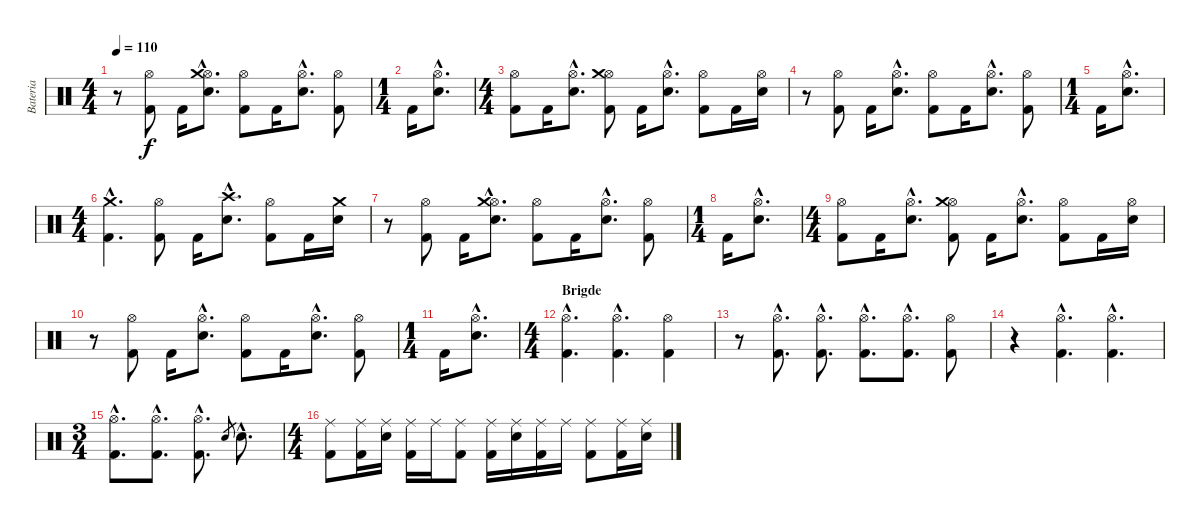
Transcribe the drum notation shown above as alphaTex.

\track ("Bateria" "Bateria") {instrument percussion}
\staff {score}
\articulation defaults
\ts (4 4)
\tempo 110
\clef neutral
\ks c
r.8{dy f} ("Hi-Hat (open)" "Kick (hit) 2").8 "Kick (hit) 2".16 ("Snare (hit) 2"{hac} "Hi-Hat (open)"{hac} "Crash medium (hit)"{hac}).8{d} ("Hi-Hat (open)" "Kick (hit) 2").8 "Kick (hit) 2".16 ("Snare (hit) 2"{hac} "Hi-Hat (open)"{hac}).8{d} ("Hi-Hat (open)" "Kick (hit) 2").8 |
\ts (1 4)
"Kick (hit) 2".16 ("Snare (hit) 2"{hac} "Hi-Hat (open)"{hac}).8{d} |
\ts (4 4)
("Hi-Hat (open)" "Kick (hit) 2").8 "Kick (hit) 2".16 ("Hi-Hat (open)"{hac} "Snare (hit) 2"{hac}).8{d} ("Hi-Hat (open)" "Kick (hit) 2" "Crash medium (hit)").8 "Kick (hit) 2".16 ("Hi-Hat (open)"{hac} "Snare (hit) 2"{hac}).8{d} ("Hi-Hat (open)" "Kick (hit) 2").8 "Kick (hit) 2".16 ("Hi-Hat (open)" "Snare (hit) 2").16 |
r.8 ("Hi-Hat (open)" "Kick (hit) 2").8 "Kick (hit) 2".16 ("Snare (hit) 2"{hac} "Hi-Hat (open)"{hac}).8{d} ("Hi-Hat (open)" "Kick (hit) 2").8 "Kick (hit) 2".16 ("Snare (hit) 2"{hac} "Hi-Hat (open)"{hac}).8{d} ("Hi-Hat (open)" "Kick (hit) 2").8 |
\ts (1 4)
"Kick (hit) 2".16 ("Snare (hit) 2"{hac} "Hi-Hat (open)"{hac}).8{d} |
\ts (4 4)
("Crash medium (hit)"{hac} "Kick (hit) 2"{hac}).4{d} ("Hi-Hat (open)" "Kick (hit) 2").8 "Kick (hit) 2".16 ("Crash high (hit)"{hac} "Snare (hit) 2"{hac}).8{d} ("Hi-Hat (open)" "Kick (hit) 2").8 "Kick (hit) 2".16 ("Snare (hit) 2" "Crash medium (hit)").16 |
r.8 ("Hi-Hat (open)" "Kick (hit) 2").8 "Kick (hit) 2".16 ("Snare (hit) 2"{hac} "Hi-Hat (open)"{hac} "Crash medium (hit)"{hac}).8{d} ("Hi-Hat (open)" "Kick (hit) 2").8 "Kick (hit) 2".16 ("Snare (hit) 2"{hac} "Hi-Hat (open)"{hac}).8{d} ("Hi-Hat (open)" "Kick (hit) 2").8 |
\ts (1 4)
"Kick (hit) 2".16 ("Snare (hit) 2"{hac} "Hi-Hat (open)"{hac}).8{d} |
\ts (4 4)
("Hi-Hat (open)" "Kick (hit) 2").8 "Kick (hit) 2".16 ("Hi-Hat (open)"{hac} "Snare (hit) 2"{hac}).8{d} ("Hi-Hat (open)" "Kick (hit) 2" "Crash medium (hit)").8 "Kick (hit) 2".16 ("Hi-Hat (open)"{hac} "Snare (hit) 2"{hac}).8{d} ("Hi-Hat (open)" "Kick (hit) 2").8 "Kick (hit) 2".16 ("Hi-Hat (open)" "Snare (hit) 2").16 |
r.8 ("Hi-Hat (open)" "Kick (hit) 2").8 "Kick (hit) 2".16 ("Snare (hit) 2"{hac} "Hi-Hat (open)"{hac}).8{d} ("Hi-Hat (open)" "Kick (hit) 2").8 "Kick (hit) 2".16 ("Snare (hit) 2"{hac} "Hi-Hat (open)"{hac}).8{d} ("Hi-Hat (open)" "Kick (hit) 2").8 |
\ts (1 4)
"Kick (hit) 2".16 ("Snare (hit) 2"{hac} "Hi-Hat (open)"{hac}).8{d} |
\ts (4 4)
\section ("" "Brigde")
("Kick (hit) 2"{hac} "Hi-Hat (open)"{hac}).4{d} ("Kick (hit) 2"{hac} "Hi-Hat (open)"{hac}).4{d} ("Kick (hit) 2" "Hi-Hat (open)").4 |
r.8 ("Hi-Hat (open)"{hac} "Kick (hit) 2"{hac}).8{d} ("Hi-Hat (open)"{hac} "Kick (hit) 2"{hac}).8{d} ("Hi-Hat (open)"{hac} "Kick (hit) 2"{hac}).8{d} ("Hi-Hat (open)"{hac} "Kick (hit) 2"{hac}).8{d} ("Kick (hit) 2" "Hi-Hat (open)").8 |
r.4 ("Kick (hit) 2"{hac} "Hi-Hat (open)"{hac}).4{d} ("Kick (hit) 2"{hac} "Hi-Hat (open)"{hac}).4{d} |
\ts (3 4)
("Hi-Hat (open)"{hac} "Kick (hit) 2"{hac}).8{d} ("Hi-Hat (open)"{hac} "Kick (hit) 2"{hac}).8{d} ("Hi-Hat (open)"{hac} "Kick (hit) 2"{hac}).8{d} "Snare (hit) 2".8{gr} "Snare (hit) 2"{hac}.8{d} |
\ts (4 4)
("Ride (middle)" "Kick (hit) 2").8 ("Ride (middle)" "Kick (hit) 2").16 ("Ride (middle)" "Snare (hit) 2").16 ("Ride (middle)" "Kick (hit) 2").16 "Ride (middle)".16 ("Ride (middle)" "Kick (hit) 2").8 ("Ride (middle)" "Kick (hit) 2").16 ("Ride (middle)" "Snare (hit) 2").16 ("Ride (middle)" "Kick (hit) 2").16 "Ride (middle)".16 ("Ride (middle)" "Kick (hit) 2").8 ("Ride (middle)" "Kick (hit) 2").16 ("Ride (middle)" "Snare (hit) 2").16
